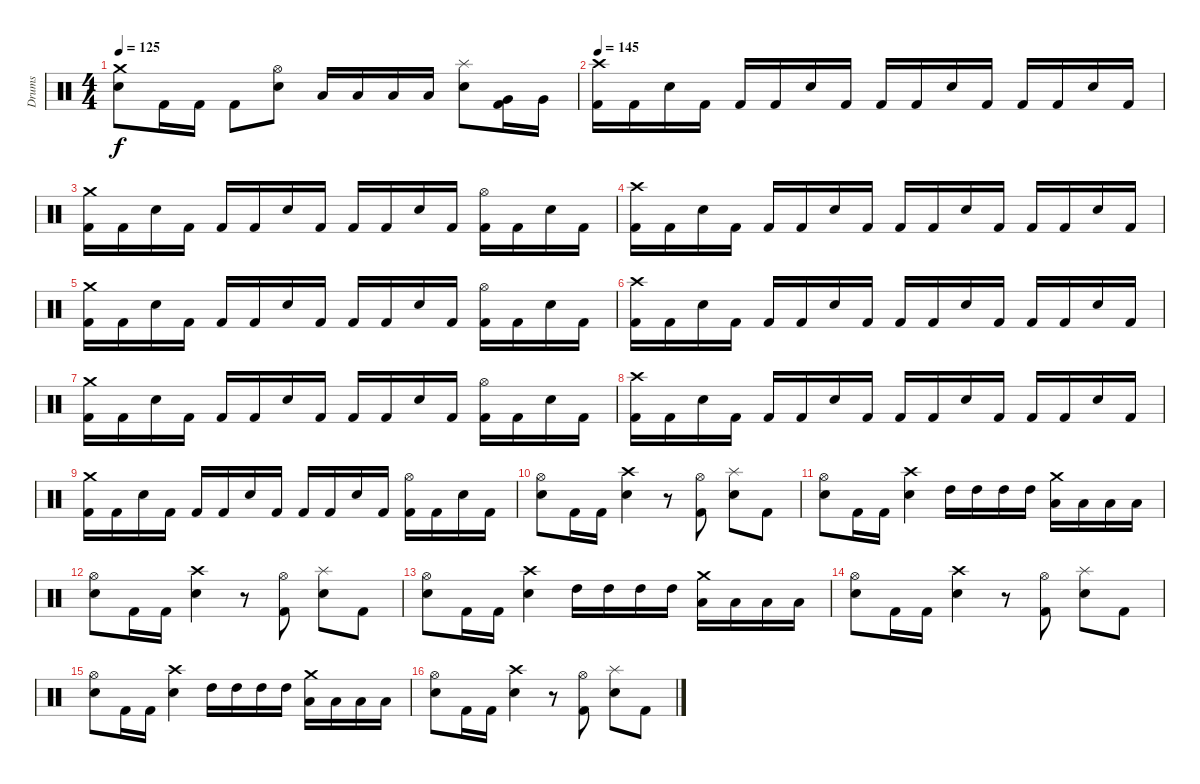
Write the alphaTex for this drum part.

\track ("Drums" "Drums") {instrument percussion}
\staff {score}
\articulation defaults
\ts (4 4)
\tempo 125
\clef neutral
\ks c
("Crash medium (hit)" "Snare (hit) 2").8{dy f} "Kick (hit) 2".16 "Kick (hit) 2".16 "Kick (hit) 2".8 ("Hi-Hat (open)" "Snare (hit) 2").8 "Low Tom (hit)".16 "Low Tom (hit)".16 "Low Tom (hit)".16 "Low Tom (hit)".16 ("Splash (hit)" "Snare (hit) 2").8 ("Very Low Tom (hit)" "Kick (hit) 2").16 "Very Low Tom (hit)".16 |
\tempo 145
("Crash high (hit)" "Kick (hit) 2").16 "Kick (hit) 2".16 "Snare (hit) 2".16 "Kick (hit) 2".16 "Kick (hit) 2".16 "Kick (hit) 2".16 "Snare (hit) 2".16 "Kick (hit) 2".16 "Kick (hit) 2".16 "Kick (hit) 2".16 "Snare (hit) 2".16 "Kick (hit) 2".16 "Kick (hit) 2".16 "Kick (hit) 2".16 "Snare (hit) 2".16 "Kick (hit) 2".16 |
("Crash medium (hit)" "Kick (hit) 2").16 "Kick (hit) 2".16 "Snare (hit) 2".16 "Kick (hit) 2".16 "Kick (hit) 2".16 "Kick (hit) 2".16 "Snare (hit) 2".16 "Kick (hit) 2".16 "Kick (hit) 2".16 "Kick (hit) 2".16 "Snare (hit) 2".16 "Kick (hit) 2".16 ("Hi-Hat (open)" "Kick (hit) 2").16 "Kick (hit) 2".16 "Snare (hit) 2".16 "Kick (hit) 2".16 |
("Crash high (hit)" "Kick (hit) 2").16 "Kick (hit) 2".16 "Snare (hit) 2".16 "Kick (hit) 2".16 "Kick (hit) 2".16 "Kick (hit) 2".16 "Snare (hit) 2".16 "Kick (hit) 2".16 "Kick (hit) 2".16 "Kick (hit) 2".16 "Snare (hit) 2".16 "Kick (hit) 2".16 "Kick (hit) 2".16 "Kick (hit) 2".16 "Snare (hit) 2".16 "Kick (hit) 2".16 |
("Crash medium (hit)" "Kick (hit) 2").16 "Kick (hit) 2".16 "Snare (hit) 2".16 "Kick (hit) 2".16 "Kick (hit) 2".16 "Kick (hit) 2".16 "Snare (hit) 2".16 "Kick (hit) 2".16 "Kick (hit) 2".16 "Kick (hit) 2".16 "Snare (hit) 2".16 "Kick (hit) 2".16 ("Hi-Hat (open)" "Kick (hit) 2").16 "Kick (hit) 2".16 "Snare (hit) 2".16 "Kick (hit) 2".16 |
("Crash high (hit)" "Kick (hit) 2").16 "Kick (hit) 2".16 "Snare (hit) 2".16 "Kick (hit) 2".16 "Kick (hit) 2".16 "Kick (hit) 2".16 "Snare (hit) 2".16 "Kick (hit) 2".16 "Kick (hit) 2".16 "Kick (hit) 2".16 "Snare (hit) 2".16 "Kick (hit) 2".16 "Kick (hit) 2".16 "Kick (hit) 2".16 "Snare (hit) 2".16 "Kick (hit) 2".16 |
("Crash medium (hit)" "Kick (hit) 2").16 "Kick (hit) 2".16 "Snare (hit) 2".16 "Kick (hit) 2".16 "Kick (hit) 2".16 "Kick (hit) 2".16 "Snare (hit) 2".16 "Kick (hit) 2".16 "Kick (hit) 2".16 "Kick (hit) 2".16 "Snare (hit) 2".16 "Kick (hit) 2".16 ("Hi-Hat (open)" "Kick (hit) 2").16 "Kick (hit) 2".16 "Snare (hit) 2".16 "Kick (hit) 2".16 |
("Crash high (hit)" "Kick (hit) 2").16 "Kick (hit) 2".16 "Snare (hit) 2".16 "Kick (hit) 2".16 "Kick (hit) 2".16 "Kick (hit) 2".16 "Snare (hit) 2".16 "Kick (hit) 2".16 "Kick (hit) 2".16 "Kick (hit) 2".16 "Snare (hit) 2".16 "Kick (hit) 2".16 "Kick (hit) 2".16 "Kick (hit) 2".16 "Snare (hit) 2".16 "Kick (hit) 2".16 |
("Crash medium (hit)" "Kick (hit) 2").16 "Kick (hit) 2".16 "Snare (hit) 2".16 "Kick (hit) 2".16 "Kick (hit) 2".16 "Kick (hit) 2".16 "Snare (hit) 2".16 "Kick (hit) 2".16 "Kick (hit) 2".16 "Kick (hit) 2".16 "Snare (hit) 2".16 "Kick (hit) 2".16 ("Hi-Hat (open)" "Kick (hit) 2").16 "Kick (hit) 2".16 "Snare (hit) 2".16 "Kick (hit) 2".16 |
("Hi-Hat (open)" "Snare (hit) 2").8 "Kick (hit) 2".16 "Kick (hit) 2".16 ("Crash high (hit)" "Snare (hit) 2").4 r.8 ("Hi-Hat (open)" "Kick (hit) 2").8 ("Splash (hit)" "Snare (hit) 2").8 "Kick (hit) 2".8 |
("Hi-Hat (open)" "Snare (hit) 2").8 "Kick (hit) 2".16 "Kick (hit) 2".16 ("Crash high (hit)" "Snare (hit) 2").4 "High Tom (hit)".16 "High Tom (hit)".16 "High Tom (hit)".16 "High Tom (hit)".16 ("Low Tom (hit)" "Crash medium (hit)").16 "Low Tom (hit)".16 "Low Tom (hit)".16 "Low Tom (hit)".16 |
("Hi-Hat (open)" "Snare (hit) 2").8 "Kick (hit) 2".16 "Kick (hit) 2".16 ("Crash high (hit)" "Snare (hit) 2").4 r.8 ("Hi-Hat (open)" "Kick (hit) 2").8 ("Splash (hit)" "Snare (hit) 2").8 "Kick (hit) 2".8 |
("Hi-Hat (open)" "Snare (hit) 2").8 "Kick (hit) 2".16 "Kick (hit) 2".16 ("Crash high (hit)" "Snare (hit) 2").4 "High Tom (hit)".16 "High Tom (hit)".16 "High Tom (hit)".16 "High Tom (hit)".16 ("Low Tom (hit)" "Crash medium (hit)").16 "Low Tom (hit)".16 "Low Tom (hit)".16 "Low Tom (hit)".16 |
("Hi-Hat (open)" "Snare (hit) 2").8 "Kick (hit) 2".16 "Kick (hit) 2".16 ("Crash high (hit)" "Snare (hit) 2").4 r.8 ("Hi-Hat (open)" "Kick (hit) 2").8 ("Splash (hit)" "Snare (hit) 2").8 "Kick (hit) 2".8 |
("Hi-Hat (open)" "Snare (hit) 2").8 "Kick (hit) 2".16 "Kick (hit) 2".16 ("Crash high (hit)" "Snare (hit) 2").4 "High Tom (hit)".16 "High Tom (hit)".16 "High Tom (hit)".16 "High Tom (hit)".16 ("Low Tom (hit)" "Crash medium (hit)").16 "Low Tom (hit)".16 "Low Tom (hit)".16 "Low Tom (hit)".16 |
("Hi-Hat (open)" "Snare (hit) 2").8 "Kick (hit) 2".16 "Kick (hit) 2".16 ("Crash high (hit)" "Snare (hit) 2").4 r.8 ("Hi-Hat (open)" "Kick (hit) 2").8 ("Splash (hit)" "Snare (hit) 2").8 "Kick (hit) 2".8
